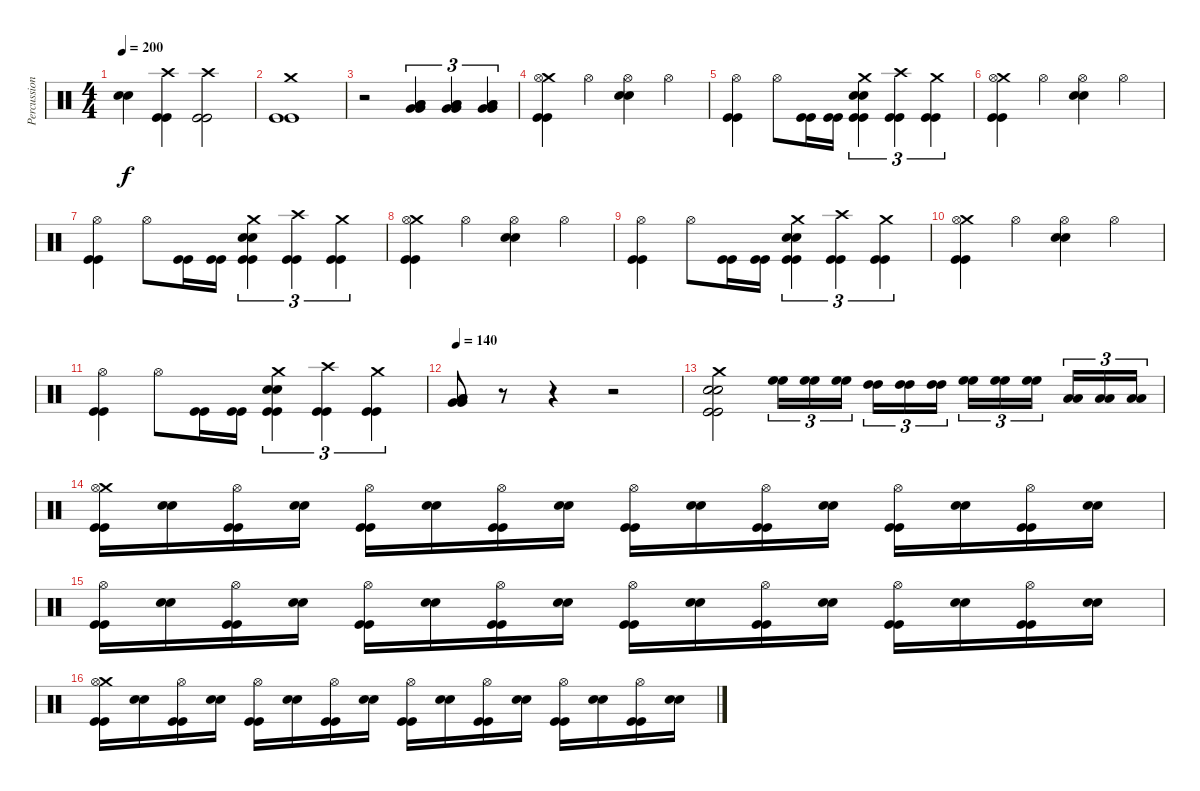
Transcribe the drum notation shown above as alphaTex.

\track ("Percussion" "Percussion") {instrument percussion}
\staff {score}
\articulation defaults
\ts (4 4)
\tempo 200
\clef neutral
\ks c
("Snare (hit)"{t} "Snare (hit)"{t}).4{dy f} ("Crash high (hit)" "Kick (hit)" "Kick (hit)").4 ("Crash high (hit)" "Kick (hit)" "Kick (hit)").2 |
("Crash medium (hit)" "Kick (hit)" "Kick (hit)").1 |
r.2 ("Very Low Tom (hit)" "Very Low Tom (hit)" "Low Floor Tom (hit)" "Low Floor Tom (hit)").4{tu (3 2)} ("Very Low Tom (hit)" "Very Low Tom (hit)" "Low Floor Tom (hit)" "Low Floor Tom (hit)").4{tu (3 2)} ("Very Low Tom (hit)" "Very Low Tom (hit)" "Low Floor Tom (hit)" "Low Floor Tom (hit)").4{tu (3 2)} |
("Crash medium (hit)" "Hi-Hat (open)" "Kick (hit)" "Kick (hit)").4 "Hi-Hat (open)".4 ("Snare (hit) 2" "Snare (hit) 2" "Hi-Hat (open)").4 "Hi-Hat (open)".4 |
("Hi-Hat (open)" "Kick (hit)" "Kick (hit)").4 "Hi-Hat (open)".8 ("Kick (hit)" "Kick (hit)").16 ("Kick (hit)" "Kick (hit)").16 ("Crash medium (hit)" "Snare (hit) 2" "Snare (hit) 2" "Kick (hit)" "Kick (hit)").4{tu (3 2)} ("Crash high (hit)" "Kick (hit)" "Kick (hit)").4{tu (3 2)} ("Crash medium (hit)" "Kick (hit)" "Kick (hit)").4{tu (3 2)} |
("Crash medium (hit)" "Hi-Hat (open)" "Kick (hit)" "Kick (hit)").4 "Hi-Hat (open)".4 ("Snare (hit) 2" "Snare (hit) 2" "Hi-Hat (open)").4 "Hi-Hat (open)".4 |
("Hi-Hat (open)" "Kick (hit)" "Kick (hit)").4 "Hi-Hat (open)".8 ("Kick (hit)" "Kick (hit)").16 ("Kick (hit)" "Kick (hit)").16 ("Crash medium (hit)" "Snare (hit) 2" "Snare (hit) 2" "Kick (hit)" "Kick (hit)").4{tu (3 2)} ("Crash high (hit)" "Kick (hit)" "Kick (hit)").4{tu (3 2)} ("Crash medium (hit)" "Kick (hit)" "Kick (hit)").4{tu (3 2)} |
("Crash medium (hit)" "Hi-Hat (open)" "Kick (hit)" "Kick (hit)").4 "Hi-Hat (open)".4 ("Snare (hit) 2" "Snare (hit) 2" "Hi-Hat (open)").4 "Hi-Hat (open)".4 |
("Hi-Hat (open)" "Kick (hit)" "Kick (hit)").4 "Hi-Hat (open)".8 ("Kick (hit)" "Kick (hit)").16 ("Kick (hit)" "Kick (hit)").16 ("Crash medium (hit)" "Snare (hit) 2" "Snare (hit) 2" "Kick (hit)" "Kick (hit)").4{tu (3 2)} ("Crash high (hit)" "Kick (hit)" "Kick (hit)").4{tu (3 2)} ("Crash medium (hit)" "Kick (hit)" "Kick (hit)").4{tu (3 2)} |
("Crash medium (hit)" "Hi-Hat (open)" "Kick (hit)" "Kick (hit)").4 "Hi-Hat (open)".4 ("Snare (hit) 2" "Snare (hit) 2" "Hi-Hat (open)").4 "Hi-Hat (open)".4 |
("Hi-Hat (open)" "Kick (hit)" "Kick (hit)").4 "Hi-Hat (open)".8 ("Kick (hit)" "Kick (hit)").16 ("Kick (hit)" "Kick (hit)").16 ("Crash medium (hit)" "Snare (hit) 2" "Snare (hit) 2" "Kick (hit)" "Kick (hit)").4{tu (3 2)} ("Crash high (hit)" "Kick (hit)" "Kick (hit)").4{tu (3 2)} ("Crash medium (hit)" "Kick (hit)" "Kick (hit)").4{tu (3 2)} |
\tempo 140
("Low Floor Tom (hit)" "Low Floor Tom (hit)" "Very Low Tom (hit)" "Very Low Tom (hit)").8 r.8 r.4 r.2 |
("Crash medium (hit)" "Snare (hit) 2" "Snare (hit) 2" "Kick (hit)" "Kick (hit)").2 ("High Floor Tom (hit)" "High Floor Tom (hit)").16{tu (3 2)} ("High Floor Tom (hit)" "High Floor Tom (hit)").16{tu (3 2)} ("High Floor Tom (hit)" "High Floor Tom (hit)").16{tu (3 2)} ("High Tom (hit)" "High Tom (hit)").16{tu (3 2)} ("High Tom (hit)" "High Tom (hit)").16{tu (3 2)} ("High Tom (hit)" "High Tom (hit)").16{tu (3 2)} ("High Floor Tom (hit)" "High Floor Tom (hit)").16{tu (3 2)} ("High Floor Tom (hit)" "High Floor Tom (hit)").16{tu (3 2)} ("High Floor Tom (hit)" "High Floor Tom (hit)").16{tu (3 2)} ("Low Tom (hit)" "Low Tom (hit)").16{tu (3 2)} ("Low Tom (hit)" "Low Tom (hit)").16{tu (3 2)} ("Low Tom (hit)" "Low Tom (hit)").16{tu (3 2)} |
("Crash medium (hit)" "Hi-Hat (open)" "Kick (hit)" "Kick (hit)").16 ("Snare (hit) 2" "Snare (hit) 2").16 ("Hi-Hat (open)" "Kick (hit)" "Kick (hit)").16 ("Snare (hit) 2" "Snare (hit) 2").16 ("Hi-Hat (open)" "Kick (hit)" "Kick (hit)").16 ("Snare (hit) 2" "Snare (hit) 2").16 ("Hi-Hat (open)" "Kick (hit)" "Kick (hit)").16 ("Snare (hit) 2" "Snare (hit) 2").16 ("Hi-Hat (open)" "Kick (hit)" "Kick (hit)").16 ("Snare (hit) 2" "Snare (hit) 2").16 ("Hi-Hat (open)" "Kick (hit)" "Kick (hit)").16 ("Snare (hit) 2" "Snare (hit) 2").16 ("Hi-Hat (open)" "Kick (hit)" "Kick (hit)").16 ("Snare (hit) 2" "Snare (hit) 2").16 ("Hi-Hat (open)" "Kick (hit)" "Kick (hit)").16 ("Snare (hit) 2" "Snare (hit) 2").16 |
("Hi-Hat (open)" "Kick (hit)" "Kick (hit)").16 ("Snare (hit) 2" "Snare (hit) 2").16 ("Hi-Hat (open)" "Kick (hit)" "Kick (hit)").16 ("Snare (hit) 2" "Snare (hit) 2").16 ("Hi-Hat (open)" "Kick (hit)" "Kick (hit)").16 ("Snare (hit) 2" "Snare (hit) 2").16 ("Hi-Hat (open)" "Kick (hit)" "Kick (hit)").16 ("Snare (hit) 2" "Snare (hit) 2").16 ("Hi-Hat (open)" "Kick (hit)" "Kick (hit)").16 ("Snare (hit) 2" "Snare (hit) 2").16 ("Hi-Hat (open)" "Kick (hit)" "Kick (hit)").16 ("Snare (hit) 2" "Snare (hit) 2").16 ("Hi-Hat (open)" "Kick (hit)" "Kick (hit)").16 ("Snare (hit) 2" "Snare (hit) 2").16 ("Hi-Hat (open)" "Kick (hit)" "Kick (hit)").16 ("Snare (hit) 2" "Snare (hit) 2").16 |
("Crash medium (hit)" "Hi-Hat (open)" "Kick (hit)" "Kick (hit)").16 ("Snare (hit) 2" "Snare (hit) 2").16 ("Hi-Hat (open)" "Kick (hit)" "Kick (hit)").16 ("Snare (hit) 2" "Snare (hit) 2").16 ("Hi-Hat (open)" "Kick (hit)" "Kick (hit)").16 ("Snare (hit) 2" "Snare (hit) 2").16 ("Hi-Hat (open)" "Kick (hit)" "Kick (hit)").16 ("Snare (hit) 2" "Snare (hit) 2").16 ("Hi-Hat (open)" "Kick (hit)" "Kick (hit)").16 ("Snare (hit) 2" "Snare (hit) 2").16 ("Hi-Hat (open)" "Kick (hit)" "Kick (hit)").16 ("Snare (hit) 2" "Snare (hit) 2").16 ("Hi-Hat (open)" "Kick (hit)" "Kick (hit)").16 ("Snare (hit) 2" "Snare (hit) 2").16 ("Hi-Hat (open)" "Kick (hit)" "Kick (hit)").16 ("Snare (hit) 2" "Snare (hit) 2").16
